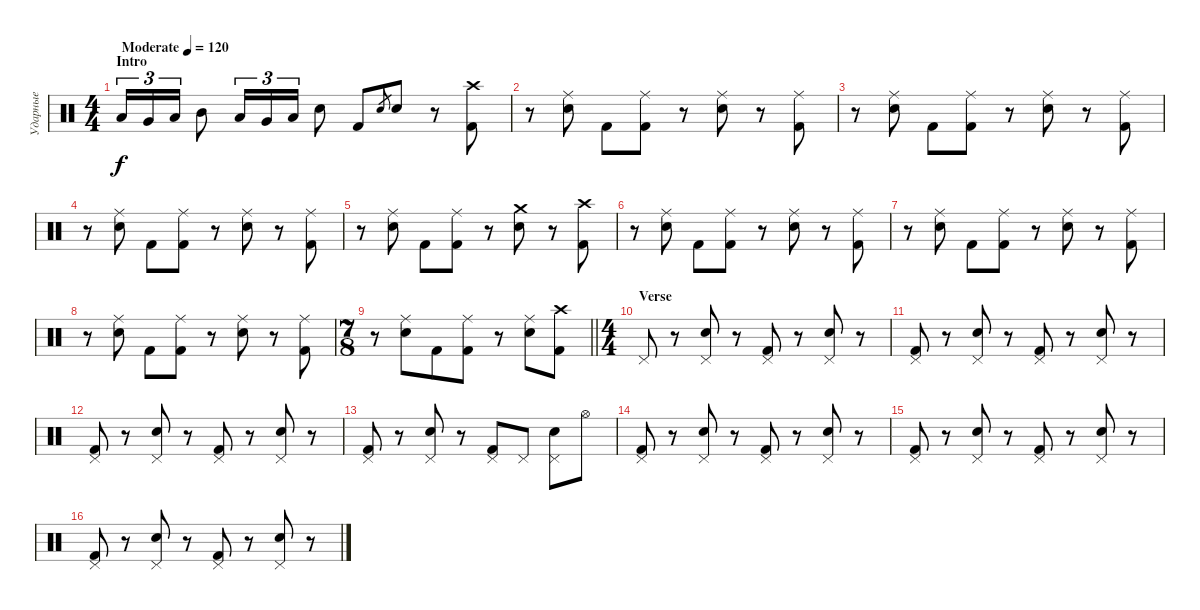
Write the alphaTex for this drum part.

\track ("Ударные" "Ударные") {instrument percussion}
\staff {score}
\articulation defaults
\ts (4 4)
\section ("" "Intro")
\tempo (120 "Moderate")
\clef neutral
\ks c "Low Floor Tom (hit)".16{tu (3 2) dy f} "Very Low Tom (hit)".16{tu (3 2)} "Low Tom (hit)".16{tu (3 2)} "Mid Tom (hit)".8 "Low Floor Tom (hit)".16{tu (3 2)} "Very Low Tom (hit)".16{tu (3 2)} "Low Tom (hit)".16{tu (3 2)} "Electric Snare (hit)".8 "Kick (hit) 2".8 "Electric Snare (hit)".8{gr} "Electric Snare (hit)".8
r.8 ("Crash high (hit)" "Kick (hit) 2").8 |
r.8 ("Ride (middle)" "Electric Snare (hit)").8 "Kick (hit) 2".8 ("Ride (middle)" "Kick (hit) 2").8 r.8 ("Ride (middle)" "Electric Snare (hit)").8 r.8 ("Ride (middle)" "Kick (hit) 2").8 |
r.8 ("Ride (middle)" "Electric Snare (hit)").8 "Kick (hit) 2".8 ("Ride (middle)" "Kick (hit) 2").8 r.8 ("Ride (middle)" "Electric Snare (hit)").8 r.8 ("Ride (middle)" "Kick (hit) 2").8 |
r.8 ("Ride (middle)" "Electric Snare (hit)").8 "Kick (hit) 2".8 ("Ride (middle)" "Kick (hit) 2").8 r.8 ("Ride (middle)" "Electric Snare (hit)").8 r.8 ("Ride (middle)" "Kick (hit) 2").8 |
r.8 ("Ride (middle)" "Electric Snare (hit)").8 "Kick (hit) 2".8 ("Ride (middle)" "Kick (hit) 2").8 r.8 ("Crash medium (hit)" "Electric Snare (hit)").8 r.8 ("Crash high (hit)" "Kick (hit) 2").8 |
r.8 ("Ride (middle)" "Electric Snare (hit)").8 "Kick (hit) 2".8 ("Ride (middle)" "Kick (hit) 2").8 r.8 ("Ride (middle)" "Electric Snare (hit)").8 r.8 ("Ride (middle)" "Kick (hit) 2").8 |
r.8 ("Ride (middle)" "Electric Snare (hit)").8 "Kick (hit) 2".8 ("Ride (middle)" "Kick (hit) 2").8 r.8 ("Ride (middle)" "Electric Snare (hit)").8 r.8 ("Ride (middle)" "Kick (hit) 2").8 |
r.8 ("Ride (middle)" "Electric Snare (hit)").8 "Kick (hit) 2".8 ("Ride (middle)" "Kick (hit) 2").8 r.8 ("Ride (middle)" "Electric Snare (hit)").8 r.8 ("Ride (middle)" "Kick (hit) 2").8 |
\ts (7 8)
\barLineRight lightlight
r.8 ("Ride (middle)" "Electric Snare (hit)").8 "Kick (hit) 2".8 ("Ride (middle)" "Kick (hit) 2").8 r.8 ("Ride (middle)" "Electric Snare (hit)").8 ("Crash high (hit)" "Kick (hit) 2").8 |
\ts (4 4)
\section ("" "Verse")
"Pedal Hi-Hat (hit)".8 r.8 ("Pedal Hi-Hat (hit)" "Electric Snare (hit)").8 r.8 ("Pedal Hi-Hat (hit)" "Kick (hit) 2").8 r.8 ("Pedal Hi-Hat (hit)" "Electric Snare (hit)").8 r.8 |
("Pedal Hi-Hat (hit)" "Kick (hit) 2").8 r.8 ("Pedal Hi-Hat (hit)" "Electric Snare (hit)").8 r.8 ("Pedal Hi-Hat (hit)" "Kick (hit) 2").8 r.8 ("Pedal Hi-Hat (hit)" "Electric Snare (hit)").8 r.8 |
("Pedal Hi-Hat (hit)" "Kick (hit) 2").8 r.8 ("Pedal Hi-Hat (hit)" "Electric Snare (hit)").8 r.8 ("Pedal Hi-Hat (hit)" "Kick (hit) 2").8 r.8 ("Pedal Hi-Hat (hit)" "Electric Snare (hit)").8 r.8 |
("Pedal Hi-Hat (hit)" "Kick (hit) 2").8 r.8 ("Pedal Hi-Hat (hit)" "Electric Snare (hit)").8 r.8 ("Pedal Hi-Hat (hit)" "Kick (hit) 2").8 "Pedal Hi-Hat (hit)".8 ("Pedal Hi-Hat (hit)" "Electric Snare (hit)").8 "Hi-Hat (open)".8 |
("Pedal Hi-Hat (hit)" "Kick (hit) 2").8 r.8 ("Pedal Hi-Hat (hit)" "Electric Snare (hit)").8 r.8 ("Pedal Hi-Hat (hit)" "Kick (hit) 2").8 r.8 ("Pedal Hi-Hat (hit)" "Electric Snare (hit)").8 r.8 |
("Pedal Hi-Hat (hit)" "Kick (hit) 2").8 r.8 ("Pedal Hi-Hat (hit)" "Electric Snare (hit)").8 r.8 ("Pedal Hi-Hat (hit)" "Kick (hit) 2").8 r.8 ("Pedal Hi-Hat (hit)" "Electric Snare (hit)").8 r.8 |
("Pedal Hi-Hat (hit)" "Kick (hit) 2").8 r.8 ("Pedal Hi-Hat (hit)" "Electric Snare (hit)").8 r.8 ("Pedal Hi-Hat (hit)" "Kick (hit) 2").8 r.8 ("Pedal Hi-Hat (hit)" "Electric Snare (hit)").8 r.8
